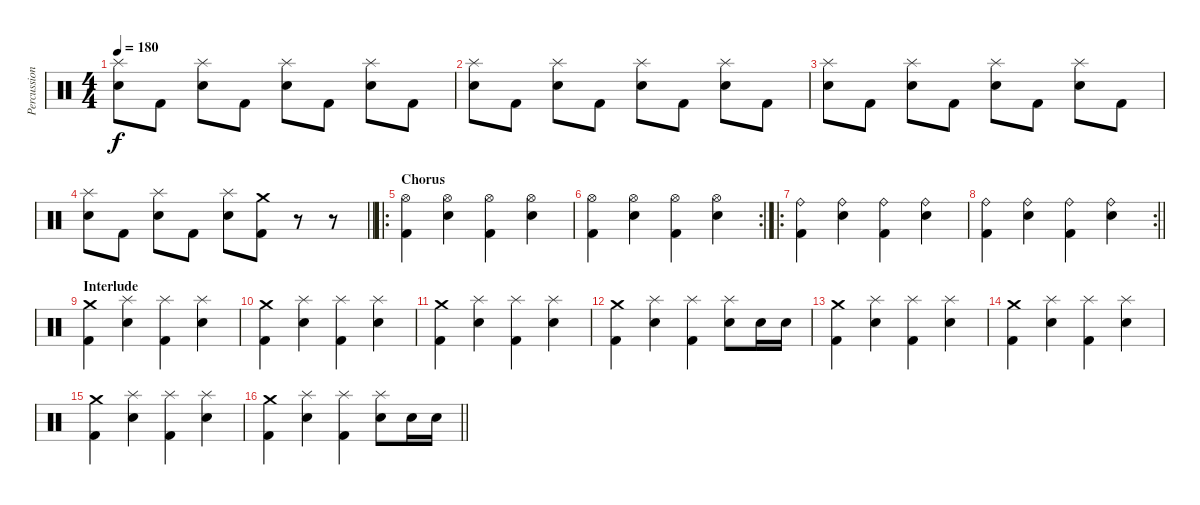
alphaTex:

\track ("Percussion" "Percussion") {instrument percussion}
\staff {score}
\articulation defaults
\ts (4 4)
\tempo 180
\clef neutral
\ks c
("Splash (hit)" "Electric Snare (hit)").8{dy f} "Kick (hit) 2".8 ("Splash (hit)" "Electric Snare (hit)").8 "Kick (hit) 2".8 ("Splash (hit)" "Electric Snare (hit)").8 "Kick (hit) 2".8 ("Splash (hit)" "Electric Snare (hit)").8 "Kick (hit) 2".8 |
("Splash (hit)" "Electric Snare (hit)").8 "Kick (hit) 2".8 ("Splash (hit)" "Electric Snare (hit)").8 "Kick (hit) 2".8 ("Splash (hit)" "Electric Snare (hit)").8 "Kick (hit) 2".8 ("Splash (hit)" "Electric Snare (hit)").8 "Kick (hit) 2".8 |
("Splash (hit)" "Electric Snare (hit)").8 "Kick (hit) 2".8 ("Splash (hit)" "Electric Snare (hit)").8 "Kick (hit) 2".8 ("Splash (hit)" "Electric Snare (hit)").8 "Kick (hit) 2".8 ("Splash (hit)" "Electric Snare (hit)").8 "Kick (hit) 2".8 |
\barLineRight lightlight
("Splash (hit)" "Electric Snare (hit)").8 "Kick (hit) 2".8 ("Splash (hit)" "Electric Snare (hit)").8 "Kick (hit) 2".8 ("Splash (hit)" "Electric Snare (hit)").8 ("Crash medium (hit)" "Kick (hit) 2").8 r.8 r.8 |
\ro
\section ("" "Chorus")
("Hi-Hat (open)" "Kick (hit) 2").4 ("Hi-Hat (open)" "Electric Snare (hit)").4 ("Hi-Hat (open)" "Kick (hit) 2").4 ("Hi-Hat (open)" "Electric Snare (hit)").4 |
\rc 2
("Hi-Hat (open)" "Kick (hit) 2").4 ("Hi-Hat (open)" "Electric Snare (hit)").4 ("Hi-Hat (open)" "Kick (hit) 2").4 ("Hi-Hat (open)" "Electric Snare (hit)").4 |
\ro
("Ride (bell)" "Kick (hit) 2").4 ("Ride (bell)" "Electric Snare (hit)").4 ("Ride (bell)" "Kick (hit) 2").4 ("Ride (bell)" "Electric Snare (hit)").4 |
\rc 2
\barLineRight lightlight
("Ride (bell)" "Kick (hit) 2").4 ("Ride (bell)" "Electric Snare (hit)").4 ("Ride (bell)" "Kick (hit) 2").4 ("Ride (bell)" "Electric Snare (hit)").4 |
\section ("" "Interlude")
("Crash medium (hit)" "Kick (hit) 2").4 ("Splash (hit)" "Electric Snare (hit)").4 ("Splash (hit)" "Kick (hit) 2").4 ("Splash (hit)" "Electric Snare (hit)").4 |
("Crash medium (hit)" "Kick (hit) 2").4 ("Splash (hit)" "Electric Snare (hit)").4 ("Splash (hit)" "Kick (hit) 2").4 ("Splash (hit)" "Electric Snare (hit)").4 |
("Crash medium (hit)" "Kick (hit) 2").4 ("Splash (hit)" "Electric Snare (hit)").4 ("Splash (hit)" "Kick (hit) 2").4 ("Splash (hit)" "Electric Snare (hit)").4 |
("Crash medium (hit)" "Kick (hit) 2").4 ("Splash (hit)" "Electric Snare (hit)").4 ("Splash (hit)" "Kick (hit) 2").4 ("Splash (hit)" "Electric Snare (hit)").8 "Electric Snare (hit)".16 "Electric Snare (hit)".16 |
("Crash medium (hit)" "Kick (hit) 2").4 ("Splash (hit)" "Electric Snare (hit)").4 ("Splash (hit)" "Kick (hit) 2").4 ("Splash (hit)" "Electric Snare (hit)").4 |
("Crash medium (hit)" "Kick (hit) 2").4 ("Splash (hit)" "Electric Snare (hit)").4 ("Splash (hit)" "Kick (hit) 2").4 ("Splash (hit)" "Electric Snare (hit)").4 |
("Crash medium (hit)" "Kick (hit) 2").4 ("Splash (hit)" "Electric Snare (hit)").4 ("Splash (hit)" "Kick (hit) 2").4 ("Splash (hit)" "Electric Snare (hit)").4 |
\barLineRight lightlight
("Crash medium (hit)" "Kick (hit) 2").4 ("Splash (hit)" "Electric Snare (hit)").4 ("Splash (hit)" "Kick (hit) 2").4 ("Splash (hit)" "Electric Snare (hit)").8 "Electric Snare (hit)".16 "Electric Snare (hit)".16
